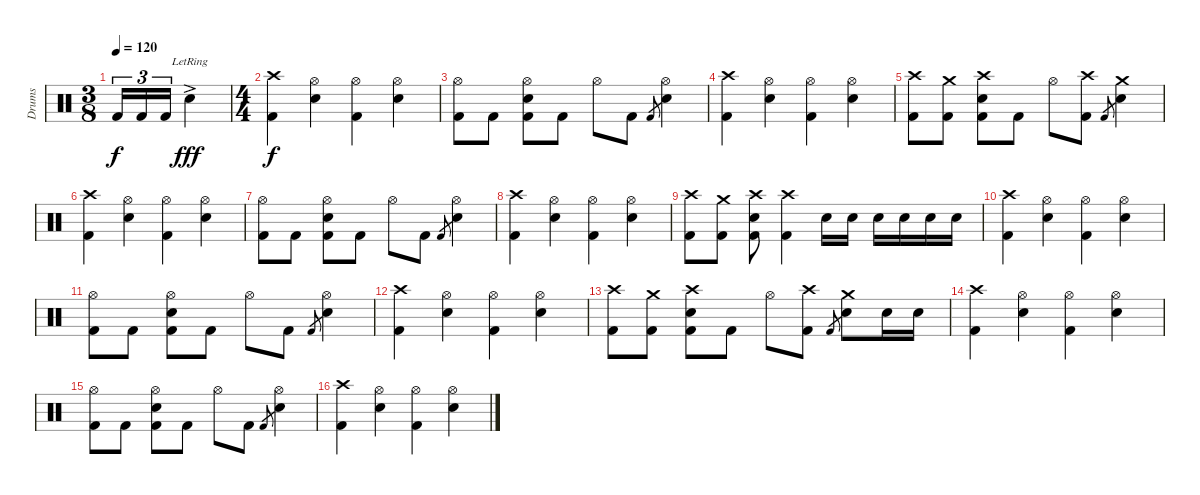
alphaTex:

\track ("Drums" "Drums") {instrument percussion}
\staff {score}
\articulation defaults
\ts (3 8)
\tempo 120
\clef neutral
\ks c "Kick (hit) 2".16{tu (3 2) dy f} "Kick (hit) 2".16{tu (3 2)} "Kick (hit) 2".16{tu (3 2)} "Electric Snare (hit)"{ac lr}.4{dy fff}
|
\ts (4 4)
("Crash high (hit)" "Kick (hit) 2").4{dy f} ("Hi-Hat (open)" "Electric Snare (hit)").4 ("Hi-Hat (open)" "Kick (hit) 2").4 ("Hi-Hat (open)" "Electric Snare (hit)").4 |
("Hi-Hat (open)" "Kick (hit) 2").8 "Kick (hit) 2".8 ("Hi-Hat (open)" "Kick (hit) 2" "Electric Snare (hit)").8 "Kick (hit) 2".8 "Hi-Hat (open)".8 "Kick (hit) 2".8 "Kick (hit) 2".8{gr} ("Hi-Hat (open)" "Electric Snare (hit)").4 |
("Crash high (hit)" "Kick (hit) 2").4 ("Hi-Hat (open)" "Electric Snare (hit)").4 ("Hi-Hat (open)" "Kick (hit) 2").4 ("Hi-Hat (open)" "Electric Snare (hit)").4 |
("Crash high (hit)" "Kick (hit) 2").8 ("Crash medium (hit)" "Kick (hit) 2").8 ("Crash high (hit)" "Kick (hit) 2" "Electric Snare (hit)").8 "Kick (hit) 2".8 "Hi-Hat (open)".8 ("Crash high (hit)" "Kick (hit) 2").8 "Kick (hit) 2".8{gr} ("Crash medium (hit)" "Electric Snare (hit)").4 |
("Crash high (hit)" "Kick (hit) 2").4 ("Hi-Hat (open)" "Electric Snare (hit)").4 ("Hi-Hat (open)" "Kick (hit) 2").4 ("Hi-Hat (open)" "Electric Snare (hit)").4 |
("Hi-Hat (open)" "Kick (hit) 2").8 "Kick (hit) 2".8 ("Hi-Hat (open)" "Kick (hit) 2" "Electric Snare (hit)").8 "Kick (hit) 2".8 "Hi-Hat (open)".8 "Kick (hit) 2".8 "Kick (hit) 2".8{gr} ("Hi-Hat (open)" "Electric Snare (hit)").4 |
("Crash high (hit)" "Kick (hit) 2").4 ("Hi-Hat (open)" "Electric Snare (hit)").4 ("Hi-Hat (open)" "Kick (hit) 2").4 ("Hi-Hat (open)" "Electric Snare (hit)").4 |
("Crash high (hit)" "Kick (hit) 2").8 ("Crash medium (hit)" "Kick (hit) 2").8 ("Crash high (hit)" "Kick (hit) 2" "Electric Snare (hit)").8 ("Crash high (hit)" "Kick (hit) 2").4 "Electric Snare (hit)".16 "Electric Snare (hit)".16 "Electric Snare (hit)".16 "Electric Snare (hit)".16 "Electric Snare (hit)".16 "Electric Snare (hit)".16 |
("Crash high (hit)" "Kick (hit) 2").4 ("Hi-Hat (open)" "Electric Snare (hit)").4 ("Hi-Hat (open)" "Kick (hit) 2").4 ("Hi-Hat (open)" "Electric Snare (hit)").4 |
("Hi-Hat (open)" "Kick (hit) 2").8 "Kick (hit) 2".8 ("Hi-Hat (open)" "Kick (hit) 2" "Electric Snare (hit)").8 "Kick (hit) 2".8 "Hi-Hat (open)".8 "Kick (hit) 2".8 "Kick (hit) 2".8{gr} ("Hi-Hat (open)" "Electric Snare (hit)").4 |
("Crash high (hit)" "Kick (hit) 2").4 ("Hi-Hat (open)" "Electric Snare (hit)").4 ("Hi-Hat (open)" "Kick (hit) 2").4 ("Hi-Hat (open)" "Electric Snare (hit)").4 |
("Crash high (hit)" "Kick (hit) 2").8 ("Crash medium (hit)" "Kick (hit) 2").8 ("Crash high (hit)" "Kick (hit) 2" "Electric Snare (hit)").8 "Kick (hit) 2".8 "Hi-Hat (open)".8 ("Crash high (hit)" "Kick (hit) 2").8 "Kick (hit) 2".8{gr} ("Crash medium (hit)" "Electric Snare (hit)").8 "Electric Snare (hit)".16 "Electric Snare (hit)".16 |
("Crash high (hit)" "Kick (hit) 2").4 ("Hi-Hat (open)" "Electric Snare (hit)").4 ("Hi-Hat (open)" "Kick (hit) 2").4 ("Hi-Hat (open)" "Electric Snare (hit)").4 |
("Hi-Hat (open)" "Kick (hit) 2").8 "Kick (hit) 2".8 ("Hi-Hat (open)" "Kick (hit) 2" "Electric Snare (hit)").8 "Kick (hit) 2".8 "Hi-Hat (open)".8 "Kick (hit) 2".8 "Kick (hit) 2".8{gr} ("Hi-Hat (open)" "Electric Snare (hit)").4 |
("Crash high (hit)" "Kick (hit) 2").4 ("Hi-Hat (open)" "Electric Snare (hit)").4 ("Hi-Hat (open)" "Kick (hit) 2").4 ("Hi-Hat (open)" "Electric Snare (hit)").4
